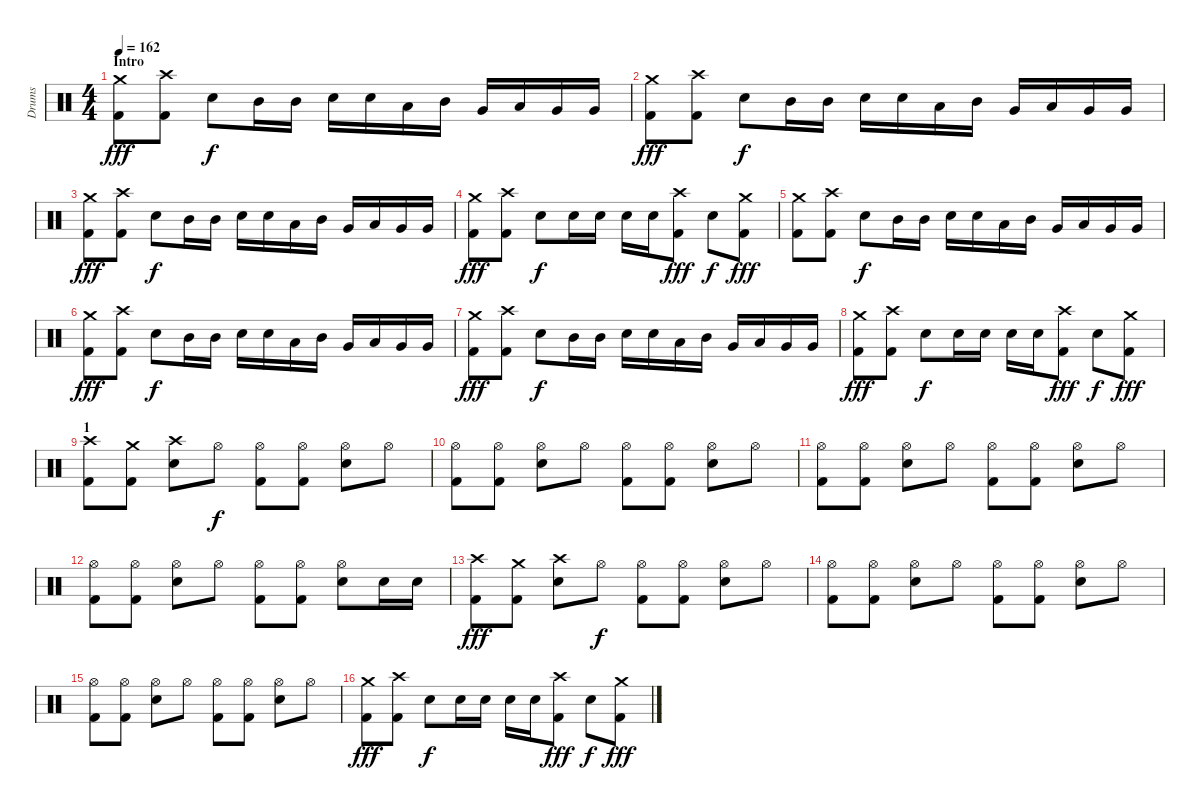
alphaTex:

\track ("Drums" "Drums") {instrument percussion}
\staff {score}
\articulation defaults
\ts (4 4)
\section ("" "Intro")
\tempo 162
\clef neutral
\ks c
("Crash medium (hit)" "Kick (hit) 2").8{dy fff} ("Crash high (hit)" "Kick (hit) 2").8 "Snare (hit) 2".8{dy f} "Mid Tom (hit)".16 "Mid Tom (hit)".16 "Snare (hit) 2".16 "Snare (hit) 2".16 "Low Tom (hit)".16 "Mid Tom (hit)".16 "Very Low Tom (hit)".16 "Low Tom (hit)".16 "Very Low Tom (hit)".16 "Very Low Tom (hit)".16 |
("Crash medium (hit)" "Kick (hit) 2").8{dy fff} ("Crash high (hit)" "Kick (hit) 2").8 "Snare (hit) 2".8{dy f} "Mid Tom (hit)".16 "Mid Tom (hit)".16 "Snare (hit) 2".16 "Snare (hit) 2".16 "Low Tom (hit)".16 "Mid Tom (hit)".16 "Very Low Tom (hit)".16 "Low Tom (hit)".16 "Very Low Tom (hit)".16 "Very Low Tom (hit)".16 |
("Crash medium (hit)" "Kick (hit) 2").8{dy fff} ("Crash high (hit)" "Kick (hit) 2").8 "Snare (hit) 2".8{dy f} "Mid Tom (hit)".16 "Mid Tom (hit)".16 "Snare (hit) 2".16 "Snare (hit) 2".16 "Low Tom (hit)".16 "Mid Tom (hit)".16 "Very Low Tom (hit)".16 "Low Tom (hit)".16 "Very Low Tom (hit)".16 "Very Low Tom (hit)".16 |
("Crash medium (hit)" "Kick (hit) 2").8{dy fff} ("Crash high (hit)" "Kick (hit) 2").8 "Snare (hit) 2".8{dy f} "Snare (hit) 2".16 "Snare (hit) 2".16 "Snare (hit) 2".16 "Snare (hit) 2".16 ("Crash high (hit)" "Kick (hit) 2").8{dy fff} "Snare (hit) 2".8{dy f} ("Crash medium (hit)" "Kick (hit) 2").8{dy fff} |
("Crash medium (hit)" "Kick (hit) 2").8 ("Crash high (hit)" "Kick (hit) 2").8 "Snare (hit) 2".8{dy f} "Mid Tom (hit)".16 "Mid Tom (hit)".16 "Snare (hit) 2".16 "Snare (hit) 2".16 "Low Tom (hit)".16 "Mid Tom (hit)".16 "Very Low Tom (hit)".16 "Low Tom (hit)".16 "Very Low Tom (hit)".16 "Very Low Tom (hit)".16 |
("Crash medium (hit)" "Kick (hit) 2").8{dy fff} ("Crash high (hit)" "Kick (hit) 2").8 "Snare (hit) 2".8{dy f} "Mid Tom (hit)".16 "Mid Tom (hit)".16 "Snare (hit) 2".16 "Snare (hit) 2".16 "Low Tom (hit)".16 "Mid Tom (hit)".16 "Very Low Tom (hit)".16 "Low Tom (hit)".16 "Very Low Tom (hit)".16 "Very Low Tom (hit)".16 |
("Crash medium (hit)" "Kick (hit) 2").8{dy fff} ("Crash high (hit)" "Kick (hit) 2").8 "Snare (hit) 2".8{dy f} "Mid Tom (hit)".16 "Mid Tom (hit)".16 "Snare (hit) 2".16 "Snare (hit) 2".16 "Low Tom (hit)".16 "Mid Tom (hit)".16 "Very Low Tom (hit)".16 "Low Tom (hit)".16 "Very Low Tom (hit)".16 "Very Low Tom (hit)".16 |
("Crash medium (hit)" "Kick (hit) 2").8{dy fff} ("Crash high (hit)" "Kick (hit) 2").8 "Snare (hit) 2".8{dy f} "Snare (hit) 2".16 "Snare (hit) 2".16 "Snare (hit) 2".16 "Snare (hit) 2".16 ("Crash high (hit)" "Kick (hit) 2").8{dy fff} "Snare (hit) 2".8{dy f} ("Crash medium (hit)" "Kick (hit) 2").8{dy fff} |
\section ("" "1")
("Crash high (hit)" "Kick (hit) 2").8 ("Crash medium (hit)" "Kick (hit) 2").8 ("Crash high (hit)" "Snare (hit) 2").8 "Hi-Hat (open)".8{dy f} ("Hi-Hat (open)" "Kick (hit) 2").8 ("Hi-Hat (open)" "Kick (hit) 2").8 ("Hi-Hat (open)" "Snare (hit) 2").8 "Hi-Hat (open)".8 |
("Hi-Hat (open)" "Kick (hit) 2").8 ("Hi-Hat (open)" "Kick (hit) 2").8 ("Hi-Hat (open)" "Snare (hit) 2").8 "Hi-Hat (open)".8 ("Hi-Hat (open)" "Kick (hit) 2").8 ("Hi-Hat (open)" "Kick (hit) 2").8 ("Hi-Hat (open)" "Snare (hit) 2").8 "Hi-Hat (open)".8 |
("Hi-Hat (open)" "Kick (hit) 2").8 ("Hi-Hat (open)" "Kick (hit) 2").8 ("Hi-Hat (open)" "Snare (hit) 2").8 "Hi-Hat (open)".8 ("Hi-Hat (open)" "Kick (hit) 2").8 ("Hi-Hat (open)" "Kick (hit) 2").8 ("Hi-Hat (open)" "Snare (hit) 2").8 "Hi-Hat (open)".8 |
("Hi-Hat (open)" "Kick (hit) 2").8 ("Hi-Hat (open)" "Kick (hit) 2").8 ("Hi-Hat (open)" "Snare (hit) 2").8 "Hi-Hat (open)".8 ("Hi-Hat (open)" "Kick (hit) 2").8 ("Hi-Hat (open)" "Kick (hit) 2").8 ("Hi-Hat (open)" "Snare (hit) 2").8 "Snare (hit) 2".16 "Snare (hit) 2".16 |
("Crash high (hit)" "Kick (hit) 2").8{dy fff} ("Crash medium (hit)" "Kick (hit) 2").8 ("Crash high (hit)" "Snare (hit) 2").8 "Hi-Hat (open)".8{dy f} ("Hi-Hat (open)" "Kick (hit) 2").8 ("Hi-Hat (open)" "Kick (hit) 2").8 ("Hi-Hat (open)" "Snare (hit) 2").8 "Hi-Hat (open)".8 |
("Hi-Hat (open)" "Kick (hit) 2").8 ("Hi-Hat (open)" "Kick (hit) 2").8 ("Hi-Hat (open)" "Snare (hit) 2").8 "Hi-Hat (open)".8 ("Hi-Hat (open)" "Kick (hit) 2").8 ("Hi-Hat (open)" "Kick (hit) 2").8 ("Hi-Hat (open)" "Snare (hit) 2").8 "Hi-Hat (open)".8 |
("Hi-Hat (open)" "Kick (hit) 2").8 ("Hi-Hat (open)" "Kick (hit) 2").8 ("Hi-Hat (open)" "Snare (hit) 2").8 "Hi-Hat (open)".8 ("Hi-Hat (open)" "Kick (hit) 2").8 ("Hi-Hat (open)" "Kick (hit) 2").8 ("Hi-Hat (open)" "Snare (hit) 2").8 "Hi-Hat (open)".8 |
("Crash medium (hit)" "Kick (hit) 2").8{dy fff} ("Crash high (hit)" "Kick (hit) 2").8 "Snare (hit) 2".8{dy f} "Snare (hit) 2".16 "Snare (hit) 2".16 "Snare (hit) 2".16 "Snare (hit) 2".16 ("Crash high (hit)" "Kick (hit) 2").8{dy fff} "Snare (hit) 2".8{dy f} ("Crash medium (hit)" "Kick (hit) 2").8{dy fff}
